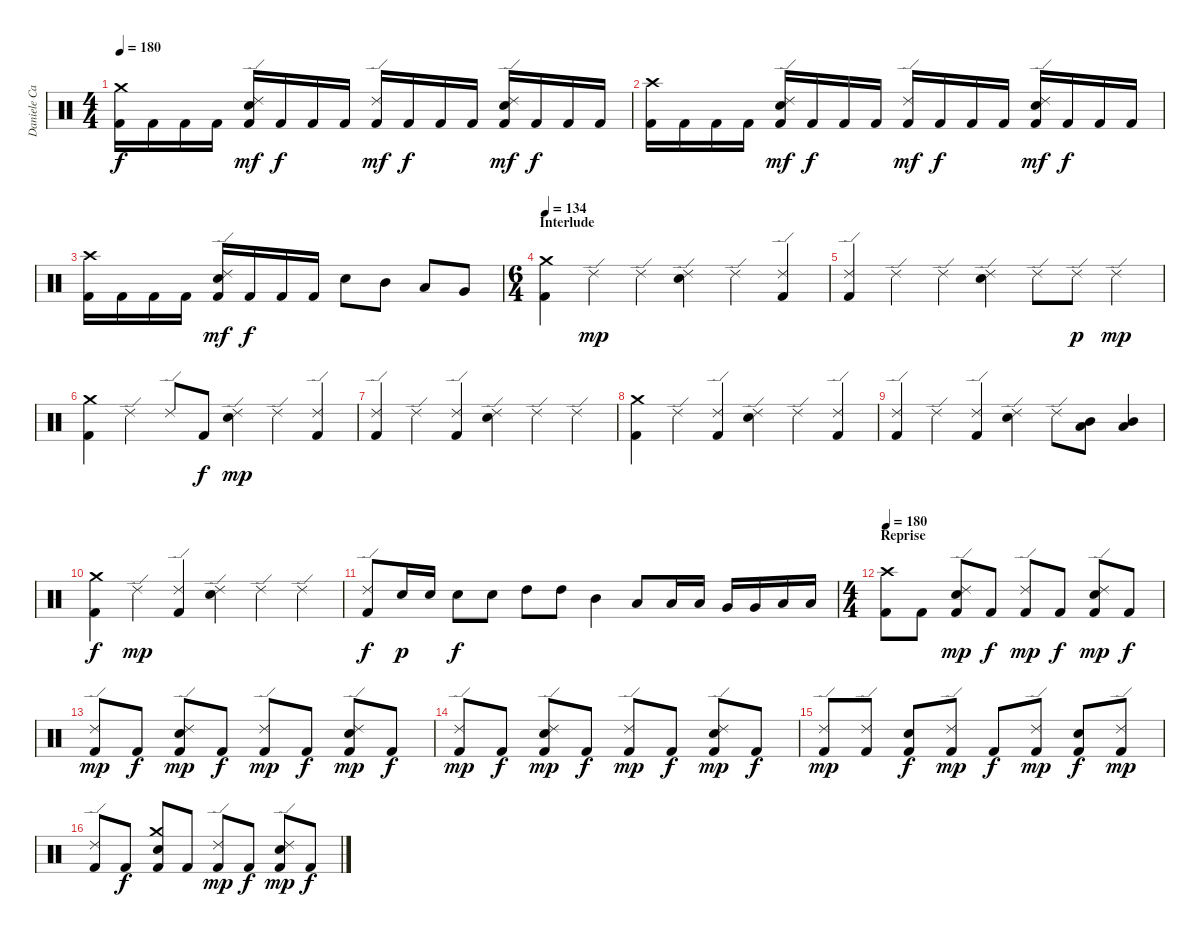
\track ("Daniele Carbonera" "Daniele Ca") {instrument percussion}
\staff {score}
\articulation defaults
\ts (4 4)
\tempo 180
\clef neutral
\ks c
("Kick (hit) 2" "Crash medium (hit)").16{dy f} "Kick (hit) 2".16 "Kick (hit) 2".16 "Kick (hit) 2".16 ("Kick (hit) 2" "Ride (edge) 2" "Snare (hit) 2").16{dy mf} "Kick (hit) 2".16{dy f} "Kick (hit) 2".16 "Kick (hit) 2".16 ("Kick (hit) 2" "Ride (edge) 2").16{dy mf} "Kick (hit) 2".16{dy f} "Kick (hit) 2".16 "Kick (hit) 2".16 ("Kick (hit) 2" "Ride (edge) 2" "Snare (hit) 2").16{dy mf} "Kick (hit) 2".16{dy f} "Kick (hit) 2".16 "Kick (hit) 2".16 |
("Kick (hit) 2" "Crash high (hit)").16 "Kick (hit) 2".16 "Kick (hit) 2".16 "Kick (hit) 2".16 ("Kick (hit) 2" "Ride (edge) 2" "Snare (hit) 2").16{dy mf} "Kick (hit) 2".16{dy f} "Kick (hit) 2".16 "Kick (hit) 2".16 ("Kick (hit) 2" "Ride (edge) 2").16{dy mf} "Kick (hit) 2".16{dy f} "Kick (hit) 2".16 "Kick (hit) 2".16 ("Kick (hit) 2" "Ride (edge) 2" "Snare (hit) 2").16{dy mf} "Kick (hit) 2".16{dy f} "Kick (hit) 2".16 "Kick (hit) 2".16 |
("Kick (hit) 2" "Crash high (hit)").16 "Kick (hit) 2".16 "Kick (hit) 2".16 "Kick (hit) 2".16 ("Kick (hit) 2" "Ride (edge) 2" "Snare (hit) 2").16{dy mf} "Kick (hit) 2".16{dy f} "Kick (hit) 2".16 "Kick (hit) 2".16 "Snare (hit) 2".8 "Mid Tom (hit)".8 "Low Tom (hit)".8 "Very Low Tom (hit)".8 |
\ts (6 4)
\section ("" "Interlude")
\tempo 134
("Kick (hit) 2" "Crash medium (hit)").4 "Ride (edge) 2".4{dy mp} "Ride (edge) 2".4 ("Ride (edge) 2" "Snare (hit) 2").4 "Ride (edge) 2".4 ("Kick (hit) 2" "Ride (edge) 2").4 |
("Kick (hit) 2" "Ride (edge) 2").4 "Ride (edge) 2".4 "Ride (edge) 2".4 ("Ride (edge) 2" "Snare (hit) 2").4 "Ride (edge) 2".8 "Ride (edge) 2".8{dy p} "Ride (edge) 2".4{dy mp} |
("Kick (hit) 2" "Crash medium (hit)").4 "Ride (edge) 2".4 "Ride (edge) 2".8 "Kick (hit) 2".8{dy f} ("Ride (edge) 2" "Snare (hit) 2").4{dy mp} "Ride (edge) 2".4 ("Kick (hit) 2" "Ride (edge) 2").4 |
("Kick (hit) 2" "Ride (edge) 2").4 "Ride (edge) 2".4 ("Kick (hit) 2" "Ride (edge) 2").4 ("Ride (edge) 2" "Snare (hit) 2").4 "Ride (edge) 2".4 "Ride (edge) 2".4 |
("Kick (hit) 2" "Crash medium (hit)").4 "Ride (edge) 2".4 ("Kick (hit) 2" "Ride (edge) 2").4 ("Ride (edge) 2" "Snare (hit) 2").4 "Ride (edge) 2".4 ("Kick (hit) 2" "Ride (edge) 2").4 |
("Kick (hit) 2" "Ride (edge) 2").4 "Ride (edge) 2".4 ("Kick (hit) 2" "Ride (edge) 2").4 ("Ride (edge) 2" "Snare (hit) 2").4 "Ride (edge) 2".8 ("Mid Tom (hit)" "Low Tom (hit)").8 ("Mid Tom (hit)" "Low Tom (hit)").4 |
("Kick (hit) 2" "Crash medium (hit)").4{dy f} "Ride (edge) 2".4{dy mp} ("Kick (hit) 2" "Ride (edge) 2").4 ("Ride (edge) 2" "Snare (hit) 2").4 "Ride (edge) 2".4 "Ride (edge) 2".4 |
("Kick (hit) 2" "Ride (edge) 2").8{dy f} "Electric Snare (hit)".16{dy p} "Electric Snare (hit)".16 "Electric Snare (hit)".8{dy f} "Electric Snare (hit)".8 "High Tom (hit)".8 "High Tom (hit)".8 "Mid Tom (hit)".4 "Low Tom (hit)".8 "Low Tom (hit)".16 "Low Tom (hit)".16 "Very Low Tom (hit)".16 "Very Low Tom (hit)".16 "Low Floor Tom (hit)".16 "Low Floor Tom (hit)".16 |
\ts (4 4)
\section ("" "Reprise")
\tempo 180
("Kick (hit) 2" "Crash high (hit)").8 "Kick (hit) 2".8 ("Kick (hit) 2" "Ride (edge) 2" "Snare (hit) 2").8{dy mp} "Kick (hit) 2".8{dy f} ("Kick (hit) 2" "Ride (edge) 2").8{dy mp} "Kick (hit) 2".8{dy f} ("Kick (hit) 2" "Ride (edge) 2" "Snare (hit) 2").8{dy mp} "Kick (hit) 2".8{dy f} |
("Kick (hit) 2" "Ride (edge) 2").8{dy mp} "Kick (hit) 2".8{dy f} ("Kick (hit) 2" "Ride (edge) 2" "Snare (hit) 2").8{dy mp} "Kick (hit) 2".8{dy f} ("Kick (hit) 2" "Ride (edge) 2").8{dy mp} "Kick (hit) 2".8{dy f} ("Kick (hit) 2" "Ride (edge) 2" "Snare (hit) 2").8{dy mp} "Kick (hit) 2".8{dy f} |
("Kick (hit) 2" "Ride (edge) 2").8{dy mp} "Kick (hit) 2".8{dy f} ("Kick (hit) 2" "Ride (edge) 2" "Snare (hit) 2").8{dy mp} "Kick (hit) 2".8{dy f} ("Kick (hit) 2" "Ride (edge) 2").8{dy mp} "Kick (hit) 2".8{dy f} ("Kick (hit) 2" "Ride (edge) 2" "Snare (hit) 2").8{dy mp} "Kick (hit) 2".8{dy f} |
("Kick (hit) 2" "Ride (edge) 2").8{dy mp} ("Kick (hit) 2" "Ride (edge) 2").8 ("Kick (hit) 2" "Snare (hit) 2").8{dy f} ("Kick (hit) 2" "Ride (edge) 2").8{dy mp} "Kick (hit) 2".8{dy f} ("Kick (hit) 2" "Ride (edge) 2").8{dy mp} ("Kick (hit) 2" "Snare (hit) 2").8{dy f} ("Kick (hit) 2" "Ride (edge) 2").8{dy mp} |
("Kick (hit) 2" "Ride (edge) 2").8 "Kick (hit) 2".8{dy f} ("Kick (hit) 2" "Crash medium (hit)" "Snare (hit) 2").8 "Kick (hit) 2".8 ("Kick (hit) 2" "Ride (edge) 2").8{dy mp} "Kick (hit) 2".8{dy f} ("Kick (hit) 2" "Ride (edge) 2" "Snare (hit) 2").8{dy mp} "Kick (hit) 2".8{dy f}
